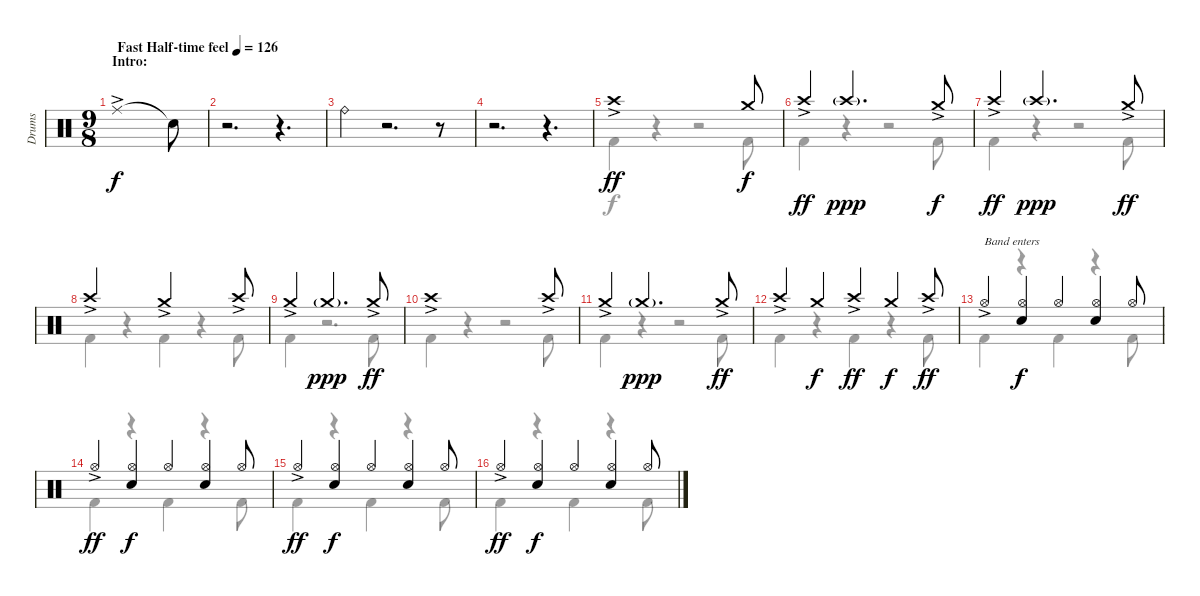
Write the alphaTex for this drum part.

\track ("Drums" "Drums") {instrument percussion}
\staff {score}
\articulation defaults
\voice
\ts (9 8)
\section ("" "Intro:")
\tempo (126 "Fast Half-time feel")
\clef neutral
\ks c "Ride (middle)"{ac}.1{dy f} "Snare (hit)"{t}.8
|
r.2{d} r.4{d} |
"Ride (bell)".4 r.2{d} r.8 |
r.2{d} r.4{d} |
"Crash high (hit)"{ac}.1{dy ff} "Crash medium (hit)".8{dy f} |
"Crash high (hit)"{ac}.4{dy ff} "Crash high (hit)"{g}.2{d dy ppp} "Crash medium (hit)"{ac}.8{dy f} |
"Crash high (hit)"{ac}.4{dy ff} "Crash high (hit)"{g}.2{d dy ppp} "Crash medium (hit)"{ac}.8{dy ff} |
"Crash high (hit)"{ac}.2 "Crash medium (hit)"{ac}.2 "Crash high (hit)"{ac}.8 |
"Crash medium (hit)"{ac}.4 "Crash medium (hit)"{g}.2{d dy ppp} "Crash medium (hit)"{ac}.8{dy ff} |
"Crash high (hit)"{ac}.1 "Crash high (hit)"{ac}.8 |
"Crash medium (hit)"{ac}.4 "Crash medium (hit)"{g}.2{d dy ppp} "Crash medium (hit)"{ac}.8{dy ff} |
"Crash high (hit)"{ac}.4 "Crash medium (hit)".4{dy f} "Crash high (hit)"{ac}.4{dy ff} "Crash medium (hit)".4{dy f} "Crash high (hit)"{ac}.8{dy ff} |
"Hi-Hat (open)"{ac}.4{txt "Band enters"} ("Hi-Hat (open)" "Electric Snare (hit)").4{dy f} "Hi-Hat (open)".4 ("Hi-Hat (open)" "Electric Snare (hit)").4 "Hi-Hat (open)".8 |
"Hi-Hat (open)"{ac}.4{dy ff} ("Hi-Hat (open)" "Electric Snare (hit)").4{dy f} "Hi-Hat (open)".4 ("Hi-Hat (open)" "Electric Snare (hit)").4 "Hi-Hat (open)".8 |
"Hi-Hat (open)"{ac}.4{dy ff} ("Hi-Hat (open)" "Electric Snare (hit)").4{dy f} "Hi-Hat (open)".4 ("Hi-Hat (open)" "Electric Snare (hit)").4 "Hi-Hat (open)".8 |
"Hi-Hat (open)"{ac}.4{dy ff} ("Hi-Hat (open)" "Electric Snare (hit)").4{dy f} "Hi-Hat (open)".4 ("Hi-Hat (open)" "Electric Snare (hit)").4 "Hi-Hat (open)".8
\voice
\clef neutral
\ottava regular
\simile none
\ks c
|
|
|
|
"Kick (hit) 2".4 r.4 r.2 "Kick (hit) 2".8 |
"Kick (hit) 2".4 r.4 r.2 "Kick (hit) 2".8 |
"Kick (hit) 2".4 r.4 r.2 "Kick (hit) 2".8 |
"Kick (hit) 2".4 r.4 "Kick (hit) 2".4 r.4 "Kick (hit) 2".8 |
"Kick (hit) 2".4 r.2{d} "Kick (hit) 2".8 |
"Kick (hit) 2".4 r.4 r.2 "Kick (hit) 2".8 |
"Kick (hit) 2".4 r.4 r.2 "Kick (hit) 2".8 |
"Kick (hit) 2".4 r.4 "Kick (hit) 2".4 r.4 "Kick (hit) 2".8 |
"Kick (hit) 2".4 r.4 "Kick (hit) 2".4 r.4 "Kick (hit) 2".8 |
"Kick (hit) 2".4 r.4 "Kick (hit) 2".4 r.4 "Kick (hit) 2".8 |
"Kick (hit) 2".4 r.4 "Kick (hit) 2".4 r.4 "Kick (hit) 2".8 |
"Kick (hit) 2".4 r.4 "Kick (hit) 2".4 r.4 "Kick (hit) 2".8
